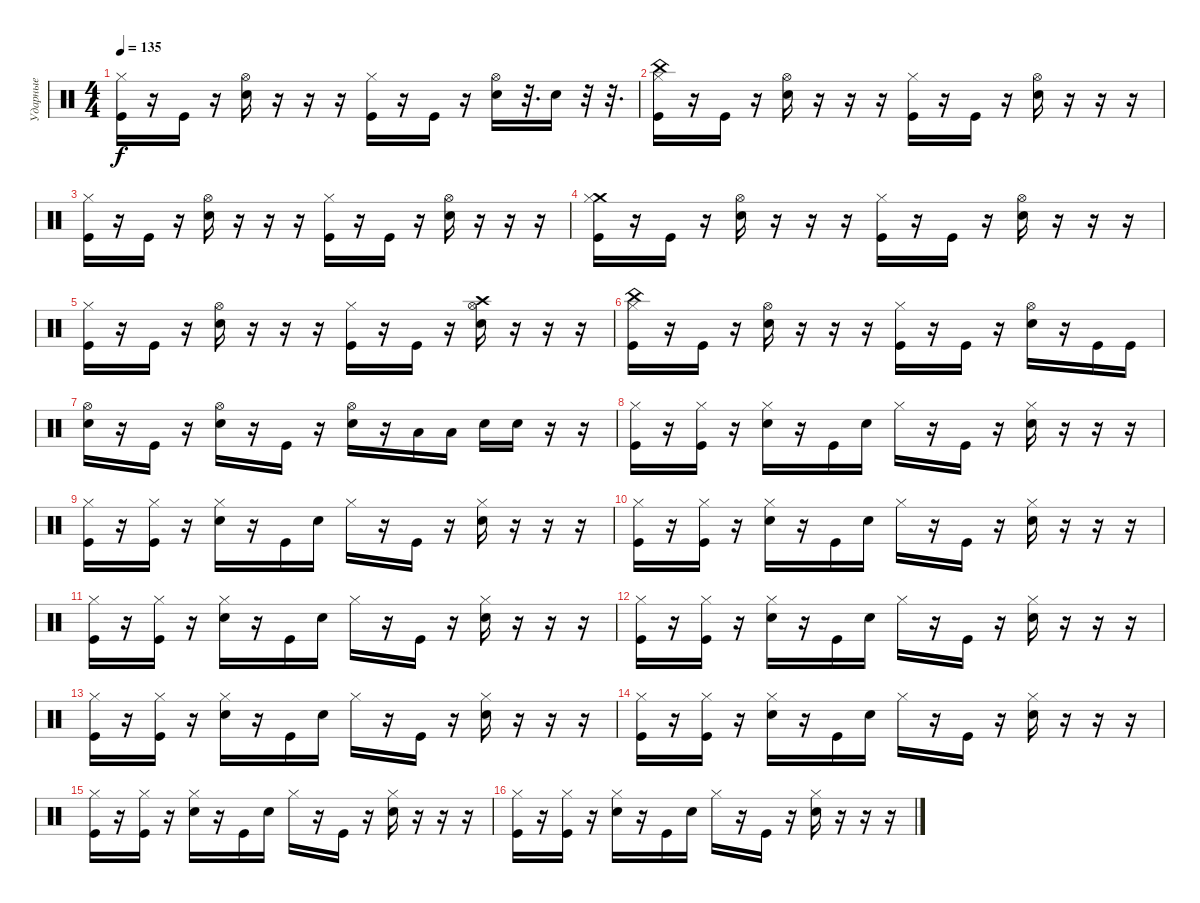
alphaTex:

\track ("Ударные" "Ударные") {instrument percussion}
\staff {score}
\articulation defaults
\ts (4 4)
\tempo 135
\clef neutral
\ks c
("Kick (hit)" "Hi-Hat (closed)").16{dy f} r.16 "Kick (hit)".16 r.16 ("Electric Snare (hit)" "Hi-Hat (open)").16 r.16 r.16 r.16 ("Kick (hit)" "Hi-Hat (closed)").16 r.16 "Kick (hit)".16 r.16 ("Electric Snare (hit)" "Hi-Hat (open)").16 r.32{d} "Electric Snare (hit)".16 r.32 r.32{d} |
("China (hit)" "Kick (hit)" "Hi-Hat (closed)").16 r.16 "Kick (hit)".16 r.16 ("Electric Snare (hit)" "Hi-Hat (open)").16 r.16 r.16 r.16 ("Kick (hit)" "Hi-Hat (closed)").16 r.16 "Kick (hit)".16 r.16 ("Electric Snare (hit)" "Hi-Hat (open)").16 r.16 r.16 r.16 |
("Kick (hit)" "Hi-Hat (closed)").16 r.16 "Kick (hit)".16 r.16 ("Electric Snare (hit)" "Hi-Hat (open)").16 r.16 r.16 r.16 ("Kick (hit)" "Hi-Hat (closed)").16 r.16 "Kick (hit)".16 r.16 ("Electric Snare (hit)" "Hi-Hat (open)").16 r.16 r.16 r.16 |
("Crash medium (hit)" "Kick (hit)" "Hi-Hat (closed)").16 r.16 "Kick (hit)".16 r.16 ("Electric Snare (hit)" "Hi-Hat (open)").16 r.16 r.16 r.16 ("Kick (hit)" "Hi-Hat (closed)").16 r.16 "Kick (hit)".16 r.16 ("Electric Snare (hit)" "Hi-Hat (open)").16 r.16 r.16 r.16 |
("Kick (hit)" "Hi-Hat (closed)").16 r.16 "Kick (hit)".16 r.16 ("Electric Snare (hit)" "Hi-Hat (open)").16 r.16 r.16 r.16 ("Kick (hit)" "Hi-Hat (closed)").16 r.16 "Kick (hit)".16 r.16 ("Crash high (hit)" "Electric Snare (hit)" "Hi-Hat (open)").16 r.16 r.16 r.16 |
("China (hit)" "Kick (hit)" "Hi-Hat (closed)").16 r.16 "Kick (hit)".16 r.16 ("Electric Snare (hit)" "Hi-Hat (open)").16 r.16 r.16 r.16 ("Kick (hit)" "Hi-Hat (closed)").16 r.16 "Kick (hit)".16 r.16 ("Electric Snare (hit)" "Hi-Hat (open)").16 r.16 "Kick (hit)".16 "Kick (hit)".16 |
("Electric Snare (hit)" "Hi-Hat (open)").16 r.16 "Kick (hit)".16 r.16 ("Electric Snare (hit)" "Hi-Hat (open)").16 r.16 "Kick (hit)".16 r.16 ("Electric Snare (hit)" "Hi-Hat (open)").16 r.16 "Low Tom (hit)".16 "Low Tom (hit)".16 "Electric Snare (hit)".16 "Electric Snare (hit)".16 r.16 r.16 |
("Hi-Hat (closed)" "Kick (hit)").16 r.16 ("Hi-Hat (closed)" "Kick (hit)").16 r.16 ("Hi-Hat (closed)" "Electric Snare (hit)").16 r.16 "Kick (hit)".16 "Electric Snare (hit)".16 "Hi-Hat (closed)".16 r.16 "Kick (hit)".16 r.16 ("Hi-Hat (closed)" "Electric Snare (hit)").16 r.16 r.16 r.16 |
("Hi-Hat (closed)" "Kick (hit)").16 r.16 ("Hi-Hat (closed)" "Kick (hit)").16 r.16 ("Hi-Hat (closed)" "Electric Snare (hit)").16 r.16 "Kick (hit)".16 "Electric Snare (hit)".16 "Hi-Hat (closed)".16 r.16 "Kick (hit)".16 r.16 ("Hi-Hat (closed)" "Electric Snare (hit)").16 r.16 r.16 r.16 |
("Hi-Hat (closed)" "Kick (hit)").16 r.16 ("Hi-Hat (closed)" "Kick (hit)").16 r.16 ("Hi-Hat (closed)" "Electric Snare (hit)").16 r.16 "Kick (hit)".16 "Electric Snare (hit)".16 "Hi-Hat (closed)".16 r.16 "Kick (hit)".16 r.16 ("Hi-Hat (closed)" "Electric Snare (hit)").16 r.16 r.16 r.16 |
("Hi-Hat (closed)" "Kick (hit)").16 r.16 ("Hi-Hat (closed)" "Kick (hit)").16 r.16 ("Hi-Hat (closed)" "Electric Snare (hit)").16 r.16 "Kick (hit)".16 "Electric Snare (hit)".16 "Hi-Hat (closed)".16 r.16 "Kick (hit)".16 r.16 ("Hi-Hat (closed)" "Electric Snare (hit)").16 r.16 r.16 r.16 |
("Hi-Hat (closed)" "Kick (hit)").16 r.16 ("Hi-Hat (closed)" "Kick (hit)").16 r.16 ("Hi-Hat (closed)" "Electric Snare (hit)").16 r.16 "Kick (hit)".16 "Electric Snare (hit)".16 "Hi-Hat (closed)".16 r.16 "Kick (hit)".16 r.16 ("Hi-Hat (closed)" "Electric Snare (hit)").16 r.16 r.16 r.16 |
("Hi-Hat (closed)" "Kick (hit)").16 r.16 ("Hi-Hat (closed)" "Kick (hit)").16 r.16 ("Hi-Hat (closed)" "Electric Snare (hit)").16 r.16 "Kick (hit)".16 "Electric Snare (hit)".16 "Hi-Hat (closed)".16 r.16 "Kick (hit)".16 r.16 ("Hi-Hat (closed)" "Electric Snare (hit)").16 r.16 r.16 r.16 |
("Hi-Hat (closed)" "Kick (hit)").16 r.16 ("Hi-Hat (closed)" "Kick (hit)").16 r.16 ("Hi-Hat (closed)" "Electric Snare (hit)").16 r.16 "Kick (hit)".16 "Electric Snare (hit)".16 "Hi-Hat (closed)".16 r.16 "Kick (hit)".16 r.16 ("Hi-Hat (closed)" "Electric Snare (hit)").16 r.16 r.16 r.16 |
("Hi-Hat (closed)" "Kick (hit)").16 r.16 ("Hi-Hat (closed)" "Kick (hit)").16 r.16 ("Hi-Hat (closed)" "Electric Snare (hit)").16 r.16 "Kick (hit)".16 "Electric Snare (hit)".16 "Hi-Hat (closed)".16 r.16 "Kick (hit)".16 r.16 ("Hi-Hat (closed)" "Electric Snare (hit)").16 r.16 r.16 r.16 |
("Hi-Hat (closed)" "Kick (hit)").16 r.16 ("Hi-Hat (closed)" "Kick (hit)").16 r.16 ("Hi-Hat (closed)" "Electric Snare (hit)").16 r.16 "Kick (hit)".16 "Electric Snare (hit)".16 "Hi-Hat (closed)".16 r.16 "Kick (hit)".16 r.16 ("Hi-Hat (closed)" "Electric Snare (hit)").16 r.16 r.16 r.16
